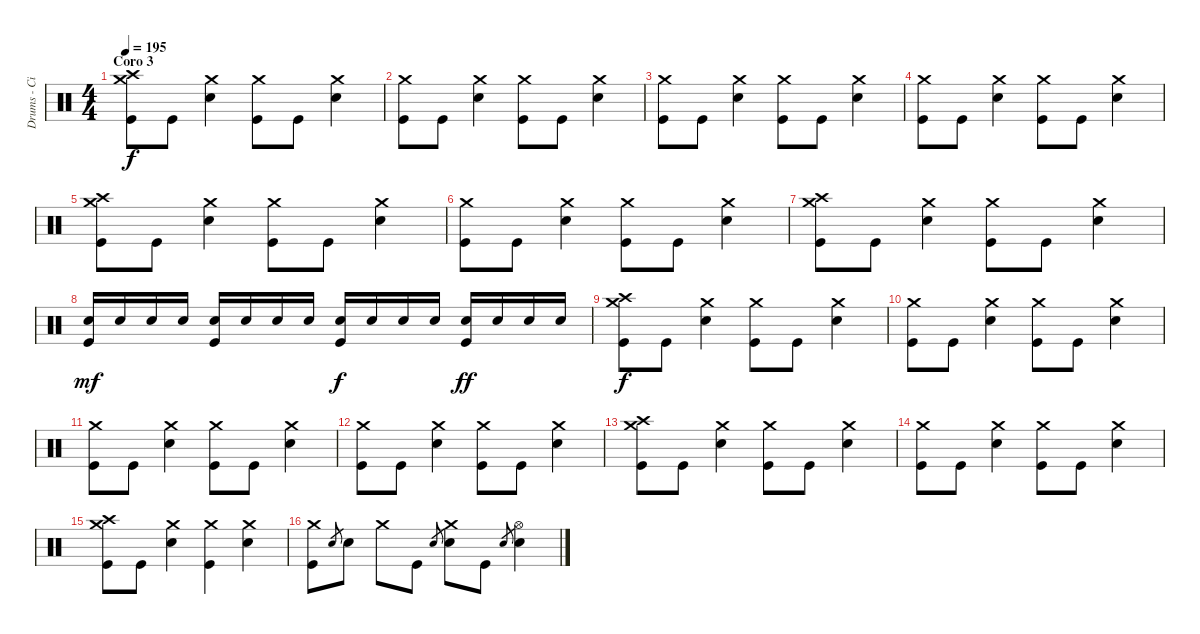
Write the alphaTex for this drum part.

\track ("Drums - Ciro" "Drums - Ci") {instrument percussion}
\staff {score}
\articulation defaults
\ts (4 4)
\section ("" "Coro 3")
\tempo 195
\clef neutral
\ks c
("Crash medium (hit)" "Crash high (hit)" "Kick (hit)").8{dy f} "Kick (hit)".8 ("Crash medium (hit)" "Electric Snare (hit)").4 ("Crash medium (hit)" "Kick (hit)").8 "Kick (hit)".8 ("Crash medium (hit)" "Electric Snare (hit)").4 |
("Crash medium (hit)" "Kick (hit)").8 "Kick (hit)".8 ("Crash medium (hit)" "Electric Snare (hit)").4 ("Crash medium (hit)" "Kick (hit)").8 "Kick (hit)".8 ("Crash medium (hit)" "Electric Snare (hit)").4 |
("Crash medium (hit)" "Kick (hit)").8 "Kick (hit)".8 ("Crash medium (hit)" "Electric Snare (hit)").4 ("Crash medium (hit)" "Kick (hit)").8 "Kick (hit)".8 ("Crash medium (hit)" "Electric Snare (hit)").4 |
("Crash medium (hit)" "Kick (hit)").8 "Kick (hit)".8 ("Crash medium (hit)" "Electric Snare (hit)").4 ("Crash medium (hit)" "Kick (hit)").8 "Kick (hit)".8 ("Crash medium (hit)" "Electric Snare (hit)").4 |
("Crash medium (hit)" "Crash high (hit)" "Kick (hit)").8 "Kick (hit)".8 ("Crash medium (hit)" "Electric Snare (hit)").4 ("Crash medium (hit)" "Kick (hit)").8 "Kick (hit)".8 ("Crash medium (hit)" "Electric Snare (hit)").4 |
("Crash medium (hit)" "Kick (hit)").8 "Kick (hit)".8 ("Crash medium (hit)" "Electric Snare (hit)").4 ("Crash medium (hit)" "Kick (hit)").8 "Kick (hit)".8 ("Crash medium (hit)" "Electric Snare (hit)").4 |
("Crash medium (hit)" "Crash high (hit)" "Kick (hit)").8 "Kick (hit)".8 ("Crash medium (hit)" "Electric Snare (hit)").4 ("Crash medium (hit)" "Kick (hit)").8 "Kick (hit)".8 ("Crash medium (hit)" "Electric Snare (hit)").4 |
("Electric Snare (hit)" "Kick (hit)").16{dy mf} "Electric Snare (hit)".16 "Electric Snare (hit)".16 "Electric Snare (hit)".16 ("Electric Snare (hit)" "Kick (hit)").16 "Electric Snare (hit)".16 "Electric Snare (hit)".16 "Electric Snare (hit)".16 ("Electric Snare (hit)" "Kick (hit)").16{dy f} "Electric Snare (hit)".16 "Electric Snare (hit)".16 "Electric Snare (hit)".16 ("Electric Snare (hit)" "Kick (hit)").16{dy ff} "Electric Snare (hit)".16 "Electric Snare (hit)".16 "Electric Snare (hit)".16 |
("Crash medium (hit)" "Crash high (hit)" "Kick (hit)").8{dy f} "Kick (hit)".8 ("Crash medium (hit)" "Electric Snare (hit)").4 ("Crash medium (hit)" "Kick (hit)").8 "Kick (hit)".8 ("Crash medium (hit)" "Electric Snare (hit)").4 |
("Crash medium (hit)" "Kick (hit)").8 "Kick (hit)".8 ("Crash medium (hit)" "Electric Snare (hit)").4 ("Crash medium (hit)" "Kick (hit)").8 "Kick (hit)".8 ("Crash medium (hit)" "Electric Snare (hit)").4 |
("Crash medium (hit)" "Kick (hit)").8 "Kick (hit)".8 ("Crash medium (hit)" "Electric Snare (hit)").4 ("Crash medium (hit)" "Kick (hit)").8 "Kick (hit)".8 ("Crash medium (hit)" "Electric Snare (hit)").4 |
("Crash medium (hit)" "Kick (hit)").8 "Kick (hit)".8 ("Crash medium (hit)" "Electric Snare (hit)").4 ("Crash medium (hit)" "Kick (hit)").8 "Kick (hit)".8 ("Crash medium (hit)" "Electric Snare (hit)").4 |
("Crash medium (hit)" "Crash high (hit)" "Kick (hit)").8 "Kick (hit)".8 ("Crash medium (hit)" "Electric Snare (hit)").4 ("Crash medium (hit)" "Kick (hit)").8 "Kick (hit)".8 ("Crash medium (hit)" "Electric Snare (hit)").4 |
("Crash medium (hit)" "Kick (hit)").8 "Kick (hit)".8 ("Crash medium (hit)" "Electric Snare (hit)").4 ("Crash medium (hit)" "Kick (hit)").8 "Kick (hit)".8 ("Crash medium (hit)" "Electric Snare (hit)").4 |
("Crash medium (hit)" "Crash high (hit)" "Kick (hit)").8 "Kick (hit)".8 ("Crash medium (hit)" "Electric Snare (hit)").4 ("Crash medium (hit)" "Kick (hit)").4 ("Crash medium (hit)" "Electric Snare (hit)").4 |
("Crash medium (hit)" "Kick (hit)").8 "Electric Snare (hit)".8{gr} "Electric Snare (hit)".8 "Crash medium (hit)".8 "Kick (hit)".8 "Electric Snare (hit)".8{gr} ("Crash medium (hit)" "Electric Snare (hit)").8 "Kick (hit)".8 "Electric Snare (hit)".8{gr} ("Hi-Hat (open)" "Electric Snare (hit)").4
